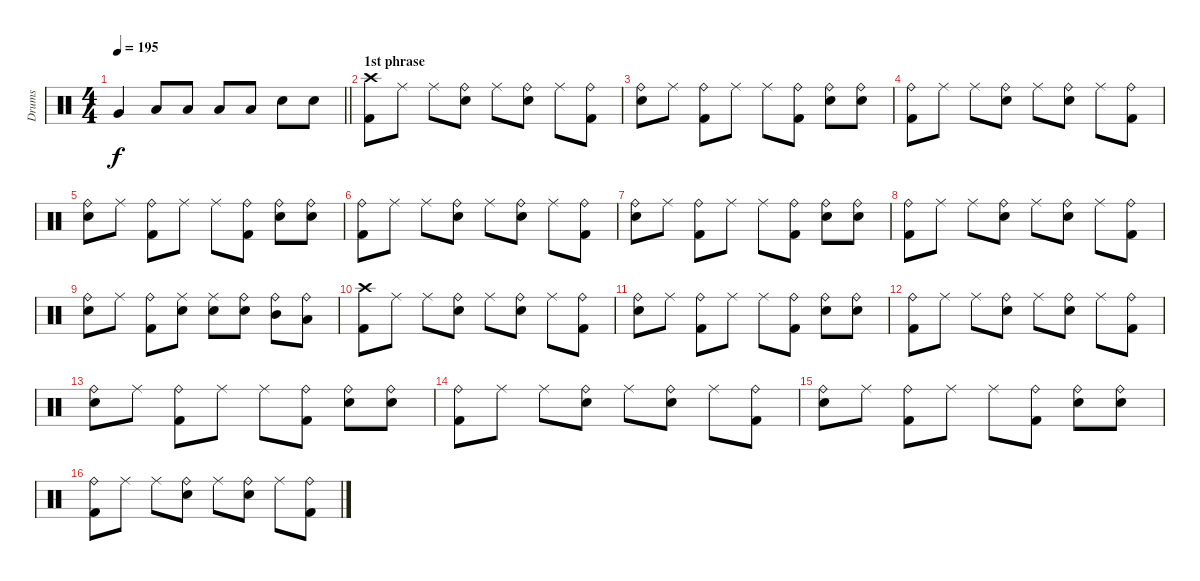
\track ("Drums" "Drums") {instrument percussion}
\staff {score}
\articulation defaults
\ts (4 4)
\tempo 195
\clef neutral
\barLineRight lightlight
\ks c "Very Low Tom (hit)".4{dy f} "Low Floor Tom (hit)".8 "Low Floor Tom (hit)".8 "Low Floor Tom (hit)".8 "Low Floor Tom (hit)".8 "Snare (hit) 2".8 "Snare (hit) 2".8
|
\section ("" "1st phrase")
("Crash high (hit)" "Kick (hit) 2").8 "Ride (middle)".8 "Ride (middle)".8 ("Ride (bell)" "Snare (hit) 2").8 "Ride (middle)".8 ("Ride (bell)" "Snare (hit) 2").8 "Ride (middle)".8 ("Ride (bell)" "Kick (hit) 2").8 |
("Ride (bell)" "Snare (hit) 2").8 "Ride (middle)".8 ("Ride (bell)" "Kick (hit) 2").8 "Ride (middle)".8 "Ride (middle)".8 ("Ride (bell)" "Kick (hit) 2").8 ("Ride (bell)" "Snare (hit) 2").8 ("Ride (bell)" "Snare (hit) 2").8 |
("Ride (bell)" "Kick (hit) 2").8 "Ride (middle)".8 "Ride (middle)".8 ("Ride (bell)" "Snare (hit) 2").8 "Ride (middle)".8 ("Ride (bell)" "Snare (hit) 2").8 "Ride (middle)".8 ("Ride (bell)" "Kick (hit) 2").8 |
("Ride (bell)" "Snare (hit) 2").8 "Ride (middle)".8 ("Ride (bell)" "Kick (hit) 2").8 "Ride (middle)".8 "Ride (middle)".8 ("Ride (bell)" "Kick (hit) 2").8 ("Ride (bell)" "Snare (hit) 2").8 ("Ride (bell)" "Snare (hit) 2").8 |
("Ride (bell)" "Kick (hit) 2").8 "Ride (middle)".8 "Ride (middle)".8 ("Ride (bell)" "Snare (hit) 2").8 "Ride (middle)".8 ("Ride (bell)" "Snare (hit) 2").8 "Ride (middle)".8 ("Ride (bell)" "Kick (hit) 2").8 |
("Ride (bell)" "Snare (hit) 2").8 "Ride (middle)".8 ("Ride (bell)" "Kick (hit) 2").8 "Ride (middle)".8 "Ride (middle)".8 ("Ride (bell)" "Kick (hit) 2").8 ("Ride (bell)" "Snare (hit) 2").8 ("Ride (bell)" "Snare (hit) 2").8 |
("Ride (bell)" "Kick (hit) 2").8 "Ride (middle)".8 "Ride (middle)".8 ("Ride (bell)" "Snare (hit) 2").8 "Ride (middle)".8 ("Ride (bell)" "Snare (hit) 2").8 "Ride (middle)".8 ("Ride (bell)" "Kick (hit) 2").8 |
("Ride (bell)" "Snare (hit) 2").8 "Ride (middle)".8 ("Ride (bell)" "Kick (hit) 2").8 ("Ride (middle)" "Snare (hit) 2").8 ("Ride (middle)" "Snare (hit) 2").8 ("Ride (bell)" "Snare (hit) 2").8 ("Ride (bell)" "Mid Tom (hit)").8 ("Ride (bell)" "Low Floor Tom (hit)").8 |
("Crash high (hit)" "Kick (hit) 2").8 "Ride (middle)".8 "Ride (middle)".8 ("Ride (bell)" "Snare (hit) 2").8 "Ride (middle)".8 ("Ride (bell)" "Snare (hit) 2").8 "Ride (middle)".8 ("Ride (bell)" "Kick (hit) 2").8 |
("Ride (bell)" "Snare (hit) 2").8 "Ride (middle)".8 ("Ride (bell)" "Kick (hit) 2").8 "Ride (middle)".8 "Ride (middle)".8 ("Ride (bell)" "Kick (hit) 2").8 ("Ride (bell)" "Snare (hit) 2").8 ("Ride (bell)" "Snare (hit) 2").8 |
("Ride (bell)" "Kick (hit) 2").8 "Ride (middle)".8 "Ride (middle)".8 ("Ride (bell)" "Snare (hit) 2").8 "Ride (middle)".8 ("Ride (bell)" "Snare (hit) 2").8 "Ride (middle)".8 ("Ride (bell)" "Kick (hit) 2").8 |
("Ride (bell)" "Snare (hit) 2").8 "Ride (middle)".8 ("Ride (bell)" "Kick (hit) 2").8 "Ride (middle)".8 "Ride (middle)".8 ("Ride (bell)" "Kick (hit) 2").8 ("Ride (bell)" "Snare (hit) 2").8 ("Ride (bell)" "Snare (hit) 2").8 |
("Ride (bell)" "Kick (hit) 2").8 "Ride (middle)".8 "Ride (middle)".8 ("Ride (bell)" "Snare (hit) 2").8 "Ride (middle)".8 ("Ride (bell)" "Snare (hit) 2").8 "Ride (middle)".8 ("Ride (bell)" "Kick (hit) 2").8 |
("Ride (bell)" "Snare (hit) 2").8 "Ride (middle)".8 ("Ride (bell)" "Kick (hit) 2").8 "Ride (middle)".8 "Ride (middle)".8 ("Ride (bell)" "Kick (hit) 2").8 ("Ride (bell)" "Snare (hit) 2").8 ("Ride (bell)" "Snare (hit) 2").8 |
("Ride (bell)" "Kick (hit) 2").8 "Ride (middle)".8 "Ride (middle)".8 ("Ride (bell)" "Snare (hit) 2").8 "Ride (middle)".8 ("Ride (bell)" "Snare (hit) 2").8 "Ride (middle)".8 ("Ride (bell)" "Kick (hit) 2").8
